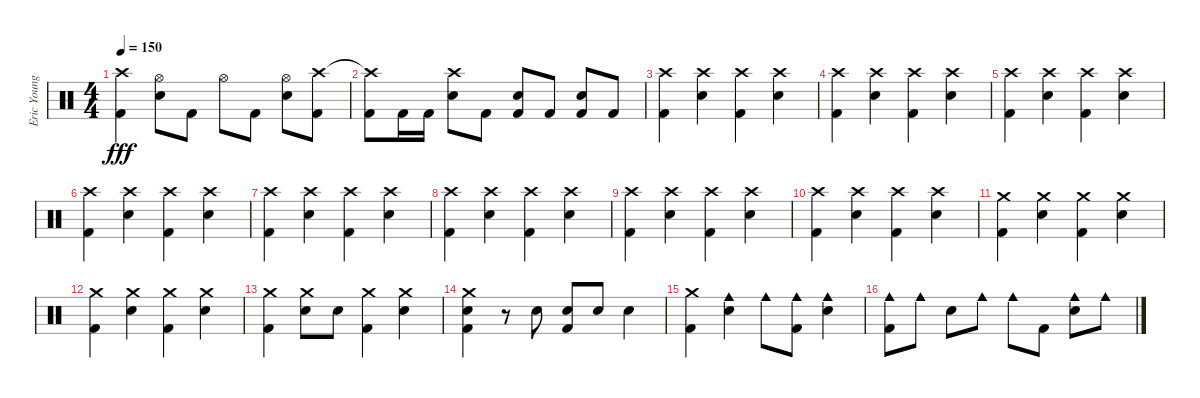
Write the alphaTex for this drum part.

\track ("Eric Young" "Eric Young") {instrument percussion}
\staff {score}
\articulation defaults
\ts (4 4)
\tempo 150
\clef neutral
\ks c
("Crash high (hit)" "Kick (hit) 2").4{dy fff} ("Hi-Hat (open)" "Electric Snare (hit)").8 "Kick (hit) 2".8 "Hi-Hat (open)".8 "Kick (hit) 2".8 ("Hi-Hat (open)" "Electric Snare (hit)").8 ("Crash high (hit)" "Kick (hit) 2").8 |
("Crash high (hit)"{t} "Kick (hit) 2").8 "Kick (hit) 2".16 "Kick (hit) 2".16 ("Crash high (hit)" "Electric Snare (hit)").8 "Kick (hit) 2".8 ("Electric Snare (hit)" "Kick (hit) 2").8 "Kick (hit) 2".8 ("Electric Snare (hit)" "Kick (hit) 2").8 "Kick (hit) 2".8 |
("Crash high (hit)" "Kick (hit) 2").4 ("Crash high (hit)" "Electric Snare (hit)").4 ("Crash high (hit)" "Kick (hit) 2").4 ("Crash high (hit)" "Electric Snare (hit)").4 |
("Crash high (hit)" "Kick (hit) 2").4 ("Crash high (hit)" "Electric Snare (hit)").4 ("Crash high (hit)" "Kick (hit) 2").4 ("Crash high (hit)" "Electric Snare (hit)").4 |
("Crash high (hit)" "Kick (hit) 2").4 ("Crash high (hit)" "Electric Snare (hit)").4 ("Crash high (hit)" "Kick (hit) 2").4 ("Crash high (hit)" "Electric Snare (hit)").4 |
("Crash high (hit)" "Kick (hit) 2").4 ("Crash high (hit)" "Electric Snare (hit)").4 ("Crash high (hit)" "Kick (hit) 2").4 ("Crash high (hit)" "Electric Snare (hit)").4 |
("Crash high (hit)" "Kick (hit) 2").4 ("Crash high (hit)" "Electric Snare (hit)").4 ("Crash high (hit)" "Kick (hit) 2").4 ("Crash high (hit)" "Electric Snare (hit)").4 |
("Crash high (hit)" "Kick (hit) 2").4 ("Crash high (hit)" "Electric Snare (hit)").4 ("Crash high (hit)" "Kick (hit) 2").4 ("Crash high (hit)" "Electric Snare (hit)").4 |
("Crash high (hit)" "Kick (hit) 2").4 ("Crash high (hit)" "Electric Snare (hit)").4 ("Crash high (hit)" "Kick (hit) 2").4 ("Crash high (hit)" "Electric Snare (hit)").4 |
("Crash high (hit)" "Kick (hit) 2").4 ("Crash high (hit)" "Electric Snare (hit)").4 ("Crash high (hit)" "Kick (hit) 2").4 ("Crash high (hit)" "Electric Snare (hit)").4 |
("Crash medium (hit)" "Kick (hit) 2").4 ("Crash medium (hit)" "Electric Snare (hit)").4 ("Crash medium (hit)" "Kick (hit) 2").4 ("Crash medium (hit)" "Electric Snare (hit)").4 |
("Crash medium (hit)" "Kick (hit) 2").4 ("Crash medium (hit)" "Electric Snare (hit)").4 ("Crash medium (hit)" "Kick (hit) 2").4 ("Crash medium (hit)" "Electric Snare (hit)").4 |
("Crash medium (hit)" "Kick (hit) 2").4 ("Crash medium (hit)" "Electric Snare (hit)").8 "Electric Snare (hit)".8 ("Crash medium (hit)" "Kick (hit) 2").4 ("Crash medium (hit)" "Electric Snare (hit)").4 |
("Crash medium (hit)" "Electric Snare (hit)" "Kick (hit) 2").4 r.8 "Electric Snare (hit)".8 ("Electric Snare (hit)" "Kick (hit) 2").8 "Electric Snare (hit)".8 "Electric Snare (hit)".4 |
("Crash medium (hit)" "Kick (hit) 2").4 ("Cowbell medium (hit)" "Electric Snare (hit)").4 "Cowbell medium (hit)".8 ("Cowbell medium (hit)" "Kick (hit) 2").8 ("Cowbell medium (hit)" "Electric Snare (hit)").4 |
("Cowbell medium (hit)" "Kick (hit) 2").8 "Cowbell medium (hit)".8 "Electric Snare (hit)".8 "Cowbell medium (hit)".8 "Cowbell medium (hit)".8 "Kick (hit) 2".8 ("Cowbell medium (hit)" "Electric Snare (hit)").8 "Cowbell medium (hit)".8
